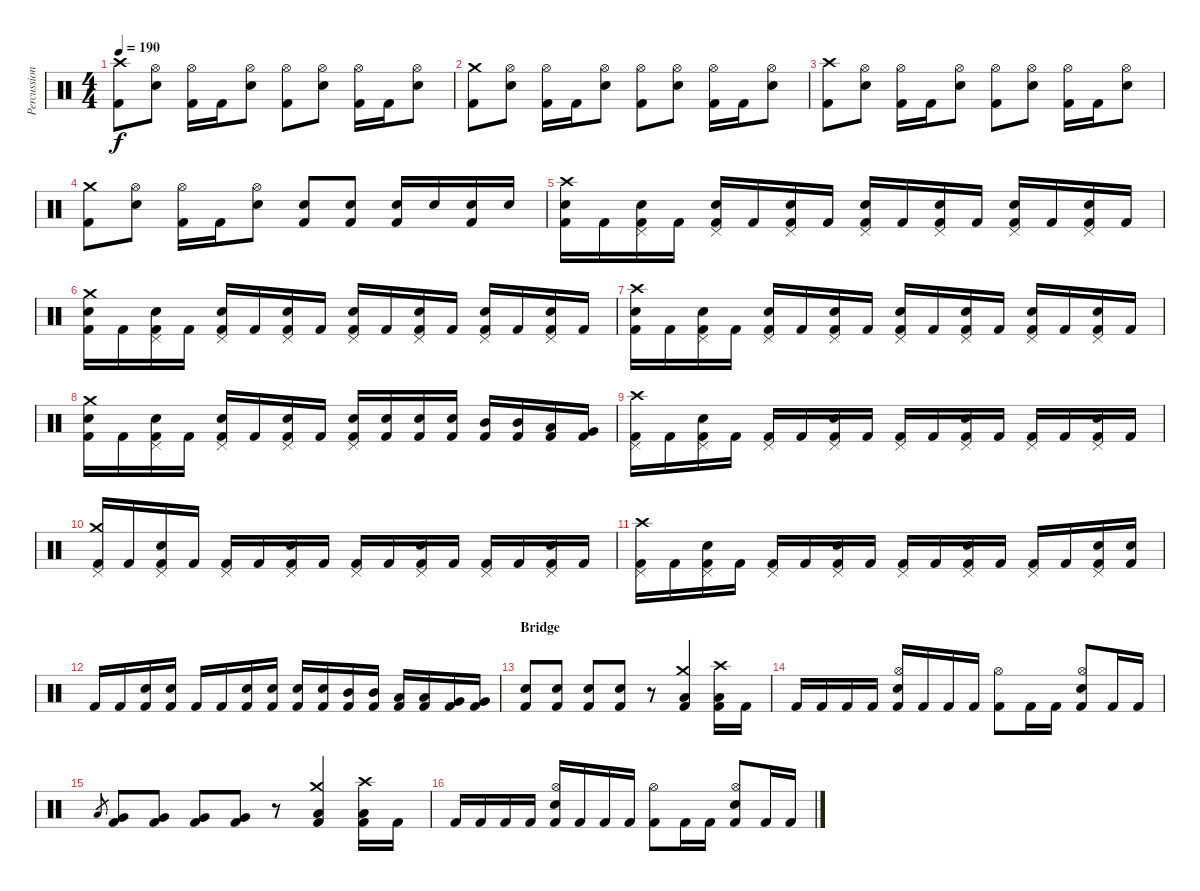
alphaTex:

\track ("Percussion" "Percussion") {instrument percussion}
\staff {score}
\articulation defaults
\ts (4 4)
\tempo 190
\clef neutral
\ks c
("Crash high (hit)" "Kick (hit) 2").8{dy f} ("Hi-Hat (open)" "Snare (hit) 2").8 ("Hi-Hat (open)" "Kick (hit) 2").16 "Kick (hit) 2".16 ("Hi-Hat (open)" "Snare (hit) 2").8 ("Hi-Hat (open)" "Kick (hit) 2").8 ("Hi-Hat (open)" "Snare (hit) 2").8 ("Hi-Hat (open)" "Kick (hit) 2").16 "Kick (hit) 2".16 ("Hi-Hat (open)" "Snare (hit) 2").8 |
("Crash medium (hit)" "Kick (hit) 2").8 ("Hi-Hat (open)" "Snare (hit) 2").8 ("Hi-Hat (open)" "Kick (hit) 2").16 "Kick (hit) 2".16 ("Hi-Hat (open)" "Snare (hit) 2").8 ("Hi-Hat (open)" "Kick (hit) 2").8 ("Hi-Hat (open)" "Snare (hit) 2").8 ("Hi-Hat (open)" "Kick (hit) 2").16 "Kick (hit) 2".16 ("Hi-Hat (open)" "Snare (hit) 2").8 |
("Crash high (hit)" "Kick (hit) 2").8 ("Hi-Hat (open)" "Snare (hit) 2").8 ("Hi-Hat (open)" "Kick (hit) 2").16 "Kick (hit) 2".16 ("Hi-Hat (open)" "Snare (hit) 2").8 ("Hi-Hat (open)" "Kick (hit) 2").8 ("Hi-Hat (open)" "Snare (hit) 2").8 ("Hi-Hat (open)" "Kick (hit) 2").16 "Kick (hit) 2".16 ("Hi-Hat (open)" "Snare (hit) 2").8 |
("Crash medium (hit)" "Kick (hit) 2").8 ("Hi-Hat (open)" "Snare (hit) 2").8 ("Hi-Hat (open)" "Kick (hit) 2").16 "Kick (hit) 2".16 ("Hi-Hat (open)" "Snare (hit) 2").8 ("Snare (hit) 2" "Kick (hit) 2").8 ("Snare (hit) 2" "Kick (hit) 2").8 ("Snare (hit) 2" "Kick (hit) 2").16 "Snare (hit) 2".16 ("Snare (hit) 2" "Kick (hit) 2").16 "Snare (hit) 2".16 |
("Crash high (hit)" "Snare (hit) 2" "Kick (hit) 2").16 "Kick (hit) 2".16 ("Pedal Hi-Hat (hit)" "Snare (hit) 2" "Kick (hit) 2").16 "Kick (hit) 2".16 ("Pedal Hi-Hat (hit)" "Snare (hit) 2" "Kick (hit) 2").16 "Kick (hit) 2".16 ("Pedal Hi-Hat (hit)" "Snare (hit) 2" "Kick (hit) 2").16 "Kick (hit) 2".16 ("Pedal Hi-Hat (hit)" "Snare (hit) 2" "Kick (hit) 2").16 "Kick (hit) 2".16 ("Pedal Hi-Hat (hit)" "Snare (hit) 2" "Kick (hit) 2").16 "Kick (hit) 2".16 ("Pedal Hi-Hat (hit)" "Snare (hit) 2" "Kick (hit) 2").16 "Kick (hit) 2".16 ("Pedal Hi-Hat (hit)" "Snare (hit) 2" "Kick (hit) 2").16 "Kick (hit) 2".16 |
("Crash medium (hit)" "Snare (hit) 2" "Kick (hit) 2").16 "Kick (hit) 2".16 ("Pedal Hi-Hat (hit)" "Snare (hit) 2" "Kick (hit) 2").16 "Kick (hit) 2".16 ("Pedal Hi-Hat (hit)" "Snare (hit) 2" "Kick (hit) 2").16 "Kick (hit) 2".16 ("Pedal Hi-Hat (hit)" "Snare (hit) 2" "Kick (hit) 2").16 "Kick (hit) 2".16 ("Pedal Hi-Hat (hit)" "Snare (hit) 2" "Kick (hit) 2").16 "Kick (hit) 2".16 ("Pedal Hi-Hat (hit)" "Snare (hit) 2" "Kick (hit) 2").16 "Kick (hit) 2".16 ("Pedal Hi-Hat (hit)" "Snare (hit) 2" "Kick (hit) 2").16 "Kick (hit) 2".16 ("Pedal Hi-Hat (hit)" "Snare (hit) 2" "Kick (hit) 2").16 "Kick (hit) 2".16 |
("Crash high (hit)" "Snare (hit) 2" "Kick (hit) 2").16 "Kick (hit) 2".16 ("Pedal Hi-Hat (hit)" "Snare (hit) 2" "Kick (hit) 2").16 "Kick (hit) 2".16 ("Pedal Hi-Hat (hit)" "Snare (hit) 2" "Kick (hit) 2").16 "Kick (hit) 2".16 ("Pedal Hi-Hat (hit)" "Snare (hit) 2" "Kick (hit) 2").16 "Kick (hit) 2".16 ("Pedal Hi-Hat (hit)" "Snare (hit) 2" "Kick (hit) 2").16 "Kick (hit) 2".16 ("Pedal Hi-Hat (hit)" "Snare (hit) 2" "Kick (hit) 2").16 "Kick (hit) 2".16 ("Pedal Hi-Hat (hit)" "Snare (hit) 2" "Kick (hit) 2").16 "Kick (hit) 2".16 ("Pedal Hi-Hat (hit)" "Snare (hit) 2" "Kick (hit) 2").16 "Kick (hit) 2".16 |
("Crash medium (hit)" "Snare (hit) 2" "Kick (hit) 2").16 "Kick (hit) 2".16 ("Pedal Hi-Hat (hit)" "Snare (hit) 2" "Kick (hit) 2").16 "Kick (hit) 2".16 ("Pedal Hi-Hat (hit)" "Snare (hit) 2" "Kick (hit) 2").16 "Kick (hit) 2".16 ("Pedal Hi-Hat (hit)" "Snare (hit) 2" "Kick (hit) 2").16 "Kick (hit) 2".16 ("Pedal Hi-Hat (hit)" "Snare (hit) 2" "Kick (hit) 2").16 ("Snare (hit) 2" "Kick (hit) 2").16 ("Snare (hit) 2" "Kick (hit) 2").16 ("Snare (hit) 2" "Kick (hit) 2").16 ("Mid Tom (hit)" "Kick (hit) 2").16 ("Mid Tom (hit)" "Kick (hit) 2").16 ("Low Tom (hit)" "Kick (hit) 2").16 ("Very Low Tom (hit)" "Kick (hit) 2").16 |
("Crash high (hit)" "Pedal Hi-Hat (hit)" "Kick (hit) 2").16 "Kick (hit) 2".16 ("Pedal Hi-Hat (hit)" "Snare (hit) 2" "Kick (hit) 2").16 "Kick (hit) 2".16 ("Pedal Hi-Hat (hit)" "Kick (hit) 2").16 "Kick (hit) 2".16 ("Pedal Hi-Hat (hit)" "Snare (hit) 2" "Kick (hit) 2").16 "Kick (hit) 2".16 ("Pedal Hi-Hat (hit)" "Kick (hit) 2").16 "Kick (hit) 2".16 ("Pedal Hi-Hat (hit)" "Snare (hit) 2" "Kick (hit) 2").16 "Kick (hit) 2".16 ("Pedal Hi-Hat (hit)" "Kick (hit) 2").16 "Kick (hit) 2".16 ("Pedal Hi-Hat (hit)" "Snare (hit) 2" "Kick (hit) 2").16 "Kick (hit) 2".16 |
("Crash medium (hit)" "Pedal Hi-Hat (hit)" "Kick (hit) 2").16 "Kick (hit) 2".16 ("Pedal Hi-Hat (hit)" "Snare (hit) 2" "Kick (hit) 2").16 "Kick (hit) 2".16 ("Pedal Hi-Hat (hit)" "Kick (hit) 2").16 "Kick (hit) 2".16 ("Pedal Hi-Hat (hit)" "Snare (hit) 2" "Kick (hit) 2").16 "Kick (hit) 2".16 ("Pedal Hi-Hat (hit)" "Kick (hit) 2").16 "Kick (hit) 2".16 ("Pedal Hi-Hat (hit)" "Snare (hit) 2" "Kick (hit) 2").16 "Kick (hit) 2".16 ("Pedal Hi-Hat (hit)" "Kick (hit) 2").16 "Kick (hit) 2".16 ("Pedal Hi-Hat (hit)" "Snare (hit) 2" "Kick (hit) 2").16 "Kick (hit) 2".16 |
("Crash high (hit)" "Pedal Hi-Hat (hit)" "Kick (hit) 2").16 "Kick (hit) 2".16 ("Pedal Hi-Hat (hit)" "Snare (hit) 2" "Kick (hit) 2").16 "Kick (hit) 2".16 ("Pedal Hi-Hat (hit)" "Kick (hit) 2").16 "Kick (hit) 2".16 ("Pedal Hi-Hat (hit)" "Snare (hit) 2" "Kick (hit) 2").16 "Kick (hit) 2".16 ("Pedal Hi-Hat (hit)" "Kick (hit) 2").16 "Kick (hit) 2".16 ("Pedal Hi-Hat (hit)" "Snare (hit) 2" "Kick (hit) 2").16 "Kick (hit) 2".16 ("Pedal Hi-Hat (hit)" "Kick (hit) 2").16 "Kick (hit) 2".16 ("Pedal Hi-Hat (hit)" "Snare (hit) 2" "Kick (hit) 2").16 ("Snare (hit) 2" "Kick (hit) 2").16 |
"Kick (hit) 2".16 "Kick (hit) 2".16 ("Snare (hit) 2" "Kick (hit) 2").16 ("Snare (hit) 2" "Kick (hit) 2").16 "Kick (hit) 2".16 "Kick (hit) 2".16 ("Snare (hit) 2" "Kick (hit) 2").16 ("Snare (hit) 2" "Kick (hit) 2").16 ("Snare (hit) 2" "Kick (hit) 2").16 ("Snare (hit) 2" "Kick (hit) 2").16 ("Mid Tom (hit)" "Kick (hit) 2").16 ("Mid Tom (hit)" "Kick (hit) 2").16 ("Low Tom (hit)" "Kick (hit) 2").16 ("Low Tom (hit)" "Kick (hit) 2").16 ("Very Low Tom (hit)" "Kick (hit) 2").16 ("Very Low Tom (hit)" "Kick (hit) 2").16 |
\section ("" "Bridge")
("Snare (hit) 2" "Kick (hit) 2").8 ("Snare (hit) 2" "Kick (hit) 2").8 ("Snare (hit) 2" "Kick (hit) 2").8 ("Snare (hit) 2" "Kick (hit) 2").8 r.8 ("Crash medium (hit)" "Low Floor Tom (hit)" "Kick (hit) 2").4 ("Crash high (hit)" "Low Floor Tom (hit)" "Kick (hit) 2").16 "Kick (hit) 2".16 |
"Kick (hit) 2".16 "Kick (hit) 2".16 "Kick (hit) 2".16 "Kick (hit) 2".16 ("Hi-Hat (open)" "Snare (hit) 2" "Kick (hit) 2").16 "Kick (hit) 2".16 "Kick (hit) 2".16 "Kick (hit) 2".16 ("Hi-Hat (open)" "Kick (hit) 2").8 "Kick (hit) 2".16 "Kick (hit) 2".16 ("Hi-Hat (open)" "Snare (hit) 2" "Kick (hit) 2").8 "Kick (hit) 2".16 "Kick (hit) 2".16 |
"Low Floor Tom (hit)".8{gr} ("Very Low Tom (hit)" "Kick (hit) 2").8 ("Very Low Tom (hit)" "Kick (hit) 2").8 ("Very Low Tom (hit)" "Kick (hit) 2").8 ("Very Low Tom (hit)" "Kick (hit) 2").8 r.8 ("Crash medium (hit)" "Low Floor Tom (hit)" "Kick (hit) 2").4 ("Crash high (hit)" "Low Floor Tom (hit)" "Kick (hit) 2").16 "Kick (hit) 2".16 |
"Kick (hit) 2".16 "Kick (hit) 2".16 "Kick (hit) 2".16 "Kick (hit) 2".16 ("Hi-Hat (open)" "Snare (hit) 2" "Kick (hit) 2").16 "Kick (hit) 2".16 "Kick (hit) 2".16 "Kick (hit) 2".16 ("Hi-Hat (open)" "Kick (hit) 2").8 "Kick (hit) 2".16 "Kick (hit) 2".16 ("Hi-Hat (open)" "Snare (hit) 2" "Kick (hit) 2").8 "Kick (hit) 2".16 "Kick (hit) 2".16
